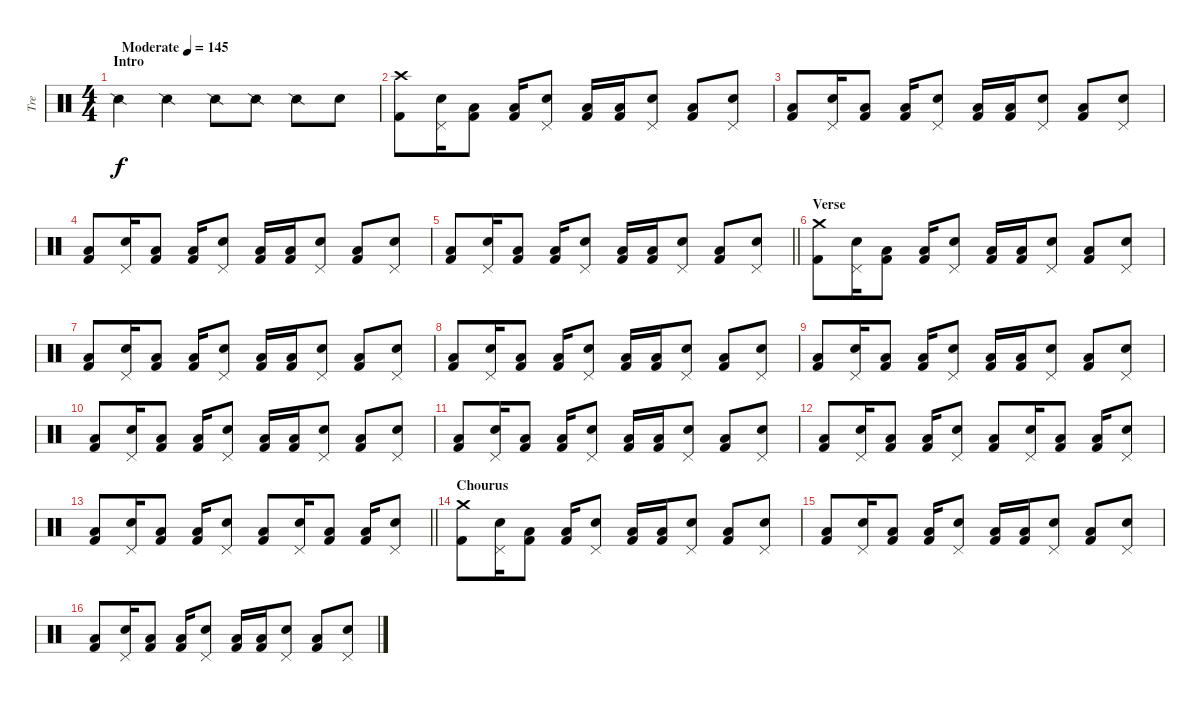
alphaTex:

\track ("Tre" "Tre") {instrument percussion}
\staff {score}
\articulation defaults
\ts (4 4)
\section ("" "Intro")
\tempo (145 "Moderate")
\clef neutral
\ks c "Snare (side stick) 2".4{dy f} "Snare (side stick) 2".4 "Snare (side stick) 2".8 "Snare (side stick) 2".8 "Snare (side stick) 2".8 "Snare (hit) 2".8
|
("Crash high (hit)" "Kick (hit) 2").8 ("Snare (hit) 2" "Pedal Hi-Hat (hit)").16 ("Low Floor Tom (hit)" "Kick (hit) 2").8 ("Low Floor Tom (hit)" "Kick (hit) 2").16 ("Snare (hit) 2" "Pedal Hi-Hat (hit)").8 ("Low Floor Tom (hit)" "Kick (hit) 2").16 ("Low Floor Tom (hit)" "Kick (hit) 2").16 ("Snare (hit) 2" "Pedal Hi-Hat (hit)").8 ("Low Floor Tom (hit)" "Kick (hit) 2").8 ("Snare (hit) 2" "Pedal Hi-Hat (hit)").8 |
("Low Floor Tom (hit)" "Kick (hit) 2").8 ("Snare (hit) 2" "Pedal Hi-Hat (hit)").16 ("Low Floor Tom (hit)" "Kick (hit) 2").8 ("Low Floor Tom (hit)" "Kick (hit) 2").16 ("Snare (hit) 2" "Pedal Hi-Hat (hit)").8 ("Low Floor Tom (hit)" "Kick (hit) 2").16 ("Low Floor Tom (hit)" "Kick (hit) 2").16 ("Snare (hit) 2" "Pedal Hi-Hat (hit)").8 ("Low Floor Tom (hit)" "Kick (hit) 2").8 ("Snare (hit) 2" "Pedal Hi-Hat (hit)").8 |
("Low Floor Tom (hit)" "Kick (hit) 2").8 ("Snare (hit) 2" "Pedal Hi-Hat (hit)").16 ("Low Floor Tom (hit)" "Kick (hit) 2").8 ("Low Floor Tom (hit)" "Kick (hit) 2").16 ("Snare (hit) 2" "Pedal Hi-Hat (hit)").8 ("Low Floor Tom (hit)" "Kick (hit) 2").16 ("Low Floor Tom (hit)" "Kick (hit) 2").16 ("Snare (hit) 2" "Pedal Hi-Hat (hit)").8 ("Low Floor Tom (hit)" "Kick (hit) 2").8 ("Snare (hit) 2" "Pedal Hi-Hat (hit)").8 |
\barLineRight lightlight
("Low Floor Tom (hit)" "Kick (hit) 2").8 ("Snare (hit) 2" "Pedal Hi-Hat (hit)").16 ("Low Floor Tom (hit)" "Kick (hit) 2").8 ("Low Floor Tom (hit)" "Kick (hit) 2").16 ("Snare (hit) 2" "Pedal Hi-Hat (hit)").8 ("Low Floor Tom (hit)" "Kick (hit) 2").16 ("Low Floor Tom (hit)" "Kick (hit) 2").16 ("Snare (hit) 2" "Pedal Hi-Hat (hit)").8 ("Low Floor Tom (hit)" "Kick (hit) 2").8 ("Snare (hit) 2" "Pedal Hi-Hat (hit)").8 |
\section ("" "Verse")
("Crash medium (hit)" "Kick (hit) 2").8 ("Snare (hit) 2" "Pedal Hi-Hat (hit)").16 ("Low Floor Tom (hit)" "Kick (hit) 2").8 ("Low Floor Tom (hit)" "Kick (hit) 2").16 ("Snare (hit) 2" "Pedal Hi-Hat (hit)").8 ("Low Floor Tom (hit)" "Kick (hit) 2").16 ("Low Floor Tom (hit)" "Kick (hit) 2").16 ("Snare (hit) 2" "Pedal Hi-Hat (hit)").8 ("Low Floor Tom (hit)" "Kick (hit) 2").8 ("Snare (hit) 2" "Pedal Hi-Hat (hit)").8 |
("Low Floor Tom (hit)" "Kick (hit) 2").8 ("Snare (hit) 2" "Pedal Hi-Hat (hit)").16 ("Low Floor Tom (hit)" "Kick (hit) 2").8 ("Low Floor Tom (hit)" "Kick (hit) 2").16 ("Snare (hit) 2" "Pedal Hi-Hat (hit)").8 ("Low Floor Tom (hit)" "Kick (hit) 2").16 ("Low Floor Tom (hit)" "Kick (hit) 2").16 ("Snare (hit) 2" "Pedal Hi-Hat (hit)").8 ("Low Floor Tom (hit)" "Kick (hit) 2").8 ("Snare (hit) 2" "Pedal Hi-Hat (hit)").8 |
("Low Floor Tom (hit)" "Kick (hit) 2").8 ("Snare (hit) 2" "Pedal Hi-Hat (hit)").16 ("Low Floor Tom (hit)" "Kick (hit) 2").8 ("Low Floor Tom (hit)" "Kick (hit) 2").16 ("Snare (hit) 2" "Pedal Hi-Hat (hit)").8 ("Low Floor Tom (hit)" "Kick (hit) 2").16 ("Low Floor Tom (hit)" "Kick (hit) 2").16 ("Snare (hit) 2" "Pedal Hi-Hat (hit)").8 ("Low Floor Tom (hit)" "Kick (hit) 2").8 ("Snare (hit) 2" "Pedal Hi-Hat (hit)").8 |
("Low Floor Tom (hit)" "Kick (hit) 2").8 ("Snare (hit) 2" "Pedal Hi-Hat (hit)").16 ("Low Floor Tom (hit)" "Kick (hit) 2").8 ("Low Floor Tom (hit)" "Kick (hit) 2").16 ("Snare (hit) 2" "Pedal Hi-Hat (hit)").8 ("Low Floor Tom (hit)" "Kick (hit) 2").16 ("Low Floor Tom (hit)" "Kick (hit) 2").16 ("Snare (hit) 2" "Pedal Hi-Hat (hit)").8 ("Low Floor Tom (hit)" "Kick (hit) 2").8 ("Snare (hit) 2" "Pedal Hi-Hat (hit)").8 |
("Low Floor Tom (hit)" "Kick (hit) 2").8 ("Snare (hit) 2" "Pedal Hi-Hat (hit)").16 ("Low Floor Tom (hit)" "Kick (hit) 2").8 ("Low Floor Tom (hit)" "Kick (hit) 2").16 ("Snare (hit) 2" "Pedal Hi-Hat (hit)").8 ("Low Floor Tom (hit)" "Kick (hit) 2").16 ("Low Floor Tom (hit)" "Kick (hit) 2").16 ("Snare (hit) 2" "Pedal Hi-Hat (hit)").8 ("Low Floor Tom (hit)" "Kick (hit) 2").8 ("Snare (hit) 2" "Pedal Hi-Hat (hit)").8 |
("Low Floor Tom (hit)" "Kick (hit) 2").8 ("Snare (hit) 2" "Pedal Hi-Hat (hit)").16 ("Low Floor Tom (hit)" "Kick (hit) 2").8 ("Low Floor Tom (hit)" "Kick (hit) 2").16 ("Snare (hit) 2" "Pedal Hi-Hat (hit)").8 ("Low Floor Tom (hit)" "Kick (hit) 2").16 ("Low Floor Tom (hit)" "Kick (hit) 2").16 ("Snare (hit) 2" "Pedal Hi-Hat (hit)").8 ("Low Floor Tom (hit)" "Kick (hit) 2").8 ("Snare (hit) 2" "Pedal Hi-Hat (hit)").8 |
("Low Floor Tom (hit)" "Kick (hit) 2").8 ("Snare (hit) 2" "Pedal Hi-Hat (hit)").16 ("Low Floor Tom (hit)" "Kick (hit) 2").8 ("Low Floor Tom (hit)" "Kick (hit) 2").16 ("Snare (hit) 2" "Pedal Hi-Hat (hit)").8 ("Low Floor Tom (hit)" "Kick (hit) 2").8 ("Snare (hit) 2" "Pedal Hi-Hat (hit)").16 ("Low Floor Tom (hit)" "Kick (hit) 2").8 ("Low Floor Tom (hit)" "Kick (hit) 2").16 ("Snare (hit) 2" "Pedal Hi-Hat (hit)").8 |
\barLineRight lightlight
("Low Floor Tom (hit)" "Kick (hit) 2").8 ("Snare (hit) 2" "Pedal Hi-Hat (hit)").16 ("Low Floor Tom (hit)" "Kick (hit) 2").8 ("Low Floor Tom (hit)" "Kick (hit) 2").16 ("Snare (hit) 2" "Pedal Hi-Hat (hit)").8 ("Low Floor Tom (hit)" "Kick (hit) 2").8 ("Snare (hit) 2" "Pedal Hi-Hat (hit)").16 ("Low Floor Tom (hit)" "Kick (hit) 2").8 ("Low Floor Tom (hit)" "Kick (hit) 2").16 ("Snare (hit) 2" "Pedal Hi-Hat (hit)").8 |
\section ("" "Chourus")
("Crash medium (hit)" "Kick (hit) 2").8 ("Snare (hit) 2" "Pedal Hi-Hat (hit)").16 ("Low Floor Tom (hit)" "Kick (hit) 2").8 ("Low Floor Tom (hit)" "Kick (hit) 2").16 ("Snare (hit) 2" "Pedal Hi-Hat (hit)").8 ("Low Floor Tom (hit)" "Kick (hit) 2").16 ("Low Floor Tom (hit)" "Kick (hit) 2").16 ("Snare (hit) 2" "Pedal Hi-Hat (hit)").8 ("Low Floor Tom (hit)" "Kick (hit) 2").8 ("Snare (hit) 2" "Pedal Hi-Hat (hit)").8 |
("Low Floor Tom (hit)" "Kick (hit) 2").8 ("Snare (hit) 2" "Pedal Hi-Hat (hit)").16 ("Low Floor Tom (hit)" "Kick (hit) 2").8 ("Low Floor Tom (hit)" "Kick (hit) 2").16 ("Snare (hit) 2" "Pedal Hi-Hat (hit)").8 ("Low Floor Tom (hit)" "Kick (hit) 2").16 ("Low Floor Tom (hit)" "Kick (hit) 2").16 ("Snare (hit) 2" "Pedal Hi-Hat (hit)").8 ("Low Floor Tom (hit)" "Kick (hit) 2").8 ("Snare (hit) 2" "Pedal Hi-Hat (hit)").8 |
("Low Floor Tom (hit)" "Kick (hit) 2").8 ("Snare (hit) 2" "Pedal Hi-Hat (hit)").16 ("Low Floor Tom (hit)" "Kick (hit) 2").8 ("Low Floor Tom (hit)" "Kick (hit) 2").16 ("Snare (hit) 2" "Pedal Hi-Hat (hit)").8 ("Low Floor Tom (hit)" "Kick (hit) 2").16 ("Low Floor Tom (hit)" "Kick (hit) 2").16 ("Snare (hit) 2" "Pedal Hi-Hat (hit)").8 ("Low Floor Tom (hit)" "Kick (hit) 2").8 ("Snare (hit) 2" "Pedal Hi-Hat (hit)").8
